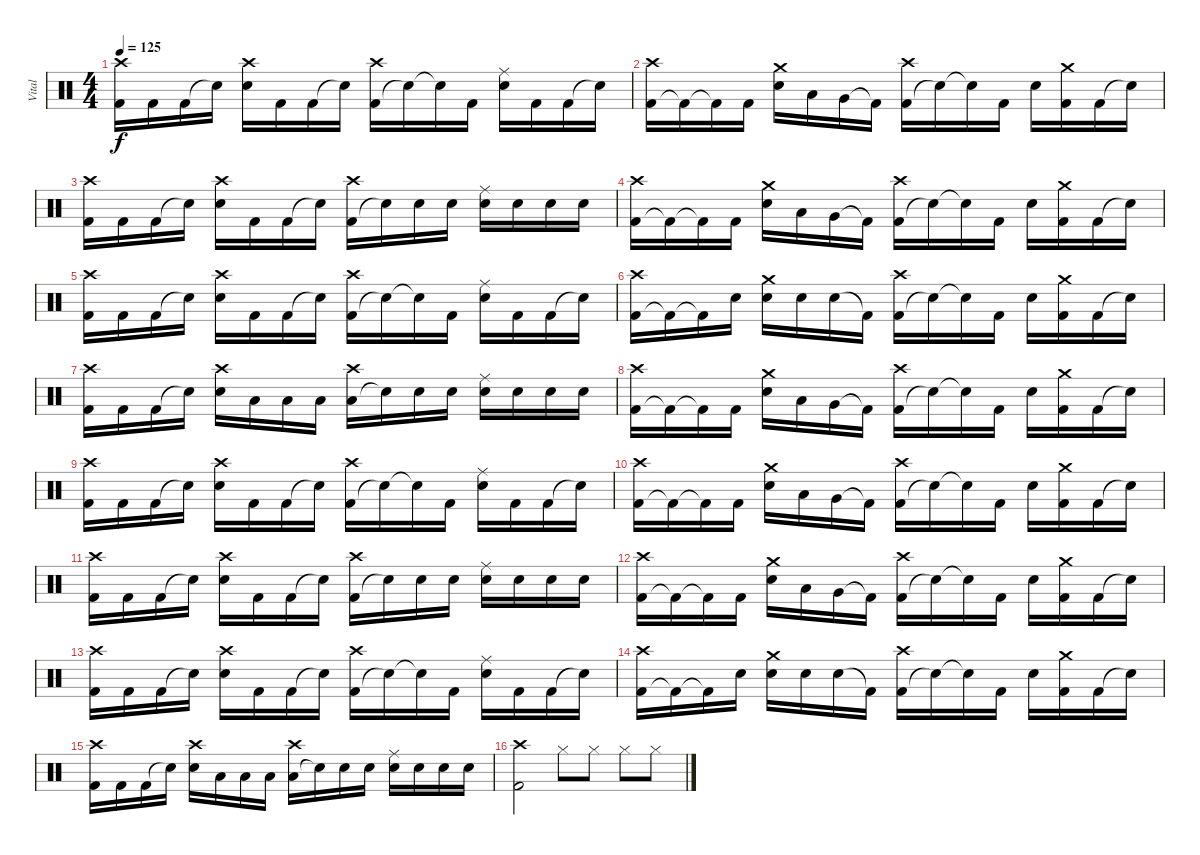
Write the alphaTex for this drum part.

\track ("Vital" "Vital") {instrument percussion}
\staff {score}
\articulation defaults
\ts (4 4)
\tempo 125
\clef neutral
\ks c
("Kick (hit) 2" "Crash high (hit)").16{dy f} "Kick (hit) 2".16 "Kick (hit) 2".16 "Snare (hit)"{t}.16 ("Snare (hit) 2" "Crash high (hit)").16 "Kick (hit) 2".16 "Kick (hit) 2".16 "Snare (hit)"{t}.16 ("Kick (hit) 2" "Crash high (hit)").16 "Snare (hit)"{t}.16 "Snare (hit)"{t}.16 "Kick (hit) 2".16 ("Snare (hit) 2" "Ride (middle)").16 "Kick (hit) 2".16 "Kick (hit) 2".16 "Snare (hit)"{t}.16 |
("Kick (hit) 2" "Crash high (hit)").16 "Kick (hit) 2"{t}.16 "Kick (hit) 2"{t}.16 "Kick (hit) 2".16 ("Snare (hit) 2" "Crash medium (hit)").16 "Low Tom (hit)".16 "Very Low Tom (hit)".16 "Kick (hit) 2"{t}.16 ("Kick (hit) 2" "Crash high (hit)").16 "Snare (hit)"{t}.16 "Snare (hit)"{t}.16 "Kick (hit) 2".16 "Snare (hit) 2".16 ("Kick (hit) 2" "Crash medium (hit)").16 "Kick (hit) 2".16 "Snare (hit)"{t}.16 |
("Kick (hit) 2" "Crash high (hit)").16 "Kick (hit) 2".16 "Kick (hit) 2".16 "Snare (hit)"{t}.16 ("Snare (hit) 2" "Crash high (hit)").16 "Kick (hit) 2".16 "Kick (hit) 2".16 "Snare (hit)"{t}.16 ("Kick (hit) 2" "Crash high (hit)").16 "Snare (hit)"{t}.16 "Snare (hit) 2".16 "Snare (hit) 2".16 ("Snare (hit) 2" "Ride (middle)").16 "Snare (hit) 2".16 "Snare (hit) 2".16 "Snare (hit) 2".16 |
("Kick (hit) 2" "Crash high (hit)").16 "Kick (hit) 2"{t}.16 "Kick (hit) 2"{t}.16 "Kick (hit) 2".16 ("Snare (hit) 2" "Crash medium (hit)").16 "Low Tom (hit)".16 "Very Low Tom (hit)".16 "Kick (hit) 2"{t}.16 ("Kick (hit) 2" "Crash high (hit)").16 "Snare (hit)"{t}.16 "Snare (hit)"{t}.16 "Kick (hit) 2".16 "Snare (hit) 2".16 ("Kick (hit) 2" "Crash medium (hit)").16 "Kick (hit) 2".16 "Snare (hit)"{t}.16 |
("Kick (hit) 2" "Crash high (hit)").16 "Kick (hit) 2".16 "Kick (hit) 2".16 "Snare (hit)"{t}.16 ("Snare (hit) 2" "Crash high (hit)").16 "Kick (hit) 2".16 "Kick (hit) 2".16 "Snare (hit)"{t}.16 ("Kick (hit) 2" "Crash high (hit)").16 "Snare (hit)"{t}.16 "Snare (hit)"{t}.16 "Kick (hit) 2".16 ("Snare (hit) 2" "Ride (middle)").16 "Kick (hit) 2".16 "Kick (hit) 2".16 "Snare (hit)"{t}.16 |
("Kick (hit) 2" "Crash high (hit)").16 "Kick (hit) 2"{t}.16 "Kick (hit) 2"{t}.16 "Snare (hit) 2".16 ("Snare (hit) 2" "Crash medium (hit)").16 "Snare (hit) 2".16 "Snare (hit) 2".16 "Kick (hit) 2"{t}.16 ("Kick (hit) 2" "Crash high (hit)").16 "Snare (hit)"{t}.16 "Snare (hit)"{t}.16 "Kick (hit) 2".16 "Snare (hit) 2".16 ("Kick (hit) 2" "Crash medium (hit)").16 "Kick (hit) 2".16 "Snare (hit)"{t}.16 |
("Kick (hit) 2" "Crash high (hit)").16 "Kick (hit) 2".16 "Kick (hit) 2".16 "Snare (hit)"{t}.16 ("Snare (hit) 2" "Crash high (hit)").16 "Low Floor Tom (hit)".16 "Low Floor Tom (hit)".16 "Low Floor Tom (hit)".16 ("Low Floor Tom (hit)" "Crash high (hit)").16 "Snare (hit)"{t}.16 "Snare (hit) 2".16 "Snare (hit) 2".16 ("Snare (hit) 2" "Ride (middle)").16 "Snare (hit) 2".16 "Snare (hit) 2".16 "Snare (hit) 2".16 |
("Kick (hit) 2" "Crash high (hit)").16 "Kick (hit) 2"{t}.16 "Kick (hit) 2"{t}.16 "Kick (hit) 2".16 ("Snare (hit) 2" "Crash medium (hit)").16 "Low Tom (hit)".16 "Very Low Tom (hit)".16 "Kick (hit) 2"{t}.16 ("Kick (hit) 2" "Crash high (hit)").16 "Snare (hit)"{t}.16 "Snare (hit)"{t}.16 "Kick (hit) 2".16 "Snare (hit) 2".16 ("Kick (hit) 2" "Crash medium (hit)").16 "Kick (hit) 2".16 "Snare (hit)"{t}.16 |
("Kick (hit) 2" "Crash high (hit)").16 "Kick (hit) 2".16 "Kick (hit) 2".16 "Snare (hit)"{t}.16 ("Snare (hit) 2" "Crash high (hit)").16 "Kick (hit) 2".16 "Kick (hit) 2".16 "Snare (hit)"{t}.16 ("Kick (hit) 2" "Crash high (hit)").16 "Snare (hit)"{t}.16 "Snare (hit)"{t}.16 "Kick (hit) 2".16 ("Snare (hit) 2" "Ride (middle)").16 "Kick (hit) 2".16 "Kick (hit) 2".16 "Snare (hit)"{t}.16 |
("Kick (hit) 2" "Crash high (hit)").16 "Kick (hit) 2"{t}.16 "Kick (hit) 2"{t}.16 "Kick (hit) 2".16 ("Snare (hit) 2" "Crash medium (hit)").16 "Low Tom (hit)".16 "Very Low Tom (hit)".16 "Kick (hit) 2"{t}.16 ("Kick (hit) 2" "Crash high (hit)").16 "Snare (hit)"{t}.16 "Snare (hit)"{t}.16 "Kick (hit) 2".16 "Snare (hit) 2".16 ("Kick (hit) 2" "Crash medium (hit)").16 "Kick (hit) 2".16 "Snare (hit)"{t}.16 |
("Kick (hit) 2" "Crash high (hit)").16 "Kick (hit) 2".16 "Kick (hit) 2".16 "Snare (hit)"{t}.16 ("Snare (hit) 2" "Crash high (hit)").16 "Kick (hit) 2".16 "Kick (hit) 2".16 "Snare (hit)"{t}.16 ("Kick (hit) 2" "Crash high (hit)").16 "Snare (hit)"{t}.16 "Snare (hit) 2".16 "Snare (hit) 2".16 ("Snare (hit) 2" "Ride (middle)").16 "Snare (hit) 2".16 "Snare (hit) 2".16 "Snare (hit) 2".16 |
("Kick (hit) 2" "Crash high (hit)").16 "Kick (hit) 2"{t}.16 "Kick (hit) 2"{t}.16 "Kick (hit) 2".16 ("Snare (hit) 2" "Crash medium (hit)").16 "Low Tom (hit)".16 "Very Low Tom (hit)".16 "Kick (hit) 2"{t}.16 ("Kick (hit) 2" "Crash high (hit)").16 "Snare (hit)"{t}.16 "Snare (hit)"{t}.16 "Kick (hit) 2".16 "Snare (hit) 2".16 ("Kick (hit) 2" "Crash medium (hit)").16 "Kick (hit) 2".16 "Snare (hit)"{t}.16 |
("Kick (hit) 2" "Crash high (hit)").16 "Kick (hit) 2".16 "Kick (hit) 2".16 "Snare (hit)"{t}.16 ("Snare (hit) 2" "Crash high (hit)").16 "Kick (hit) 2".16 "Kick (hit) 2".16 "Snare (hit)"{t}.16 ("Kick (hit) 2" "Crash high (hit)").16 "Snare (hit)"{t}.16 "Snare (hit)"{t}.16 "Kick (hit) 2".16 ("Snare (hit) 2" "Ride (middle)").16 "Kick (hit) 2".16 "Kick (hit) 2".16 "Snare (hit)"{t}.16 |
("Kick (hit) 2" "Crash high (hit)").16 "Kick (hit) 2"{t}.16 "Kick (hit) 2"{t}.16 "Snare (hit) 2".16 ("Snare (hit) 2" "Crash medium (hit)").16 "Snare (hit) 2".16 "Snare (hit) 2".16 "Kick (hit) 2"{t}.16 ("Kick (hit) 2" "Crash high (hit)").16 "Snare (hit)"{t}.16 "Snare (hit)"{t}.16 "Kick (hit) 2".16 "Snare (hit) 2".16 ("Kick (hit) 2" "Crash medium (hit)").16 "Kick (hit) 2".16 "Snare (hit)"{t}.16 |
("Kick (hit) 2" "Crash high (hit)").16 "Kick (hit) 2".16 "Kick (hit) 2".16 "Snare (hit)"{t}.16 ("Snare (hit) 2" "Crash high (hit)").16 "Low Floor Tom (hit)".16 "Low Floor Tom (hit)".16 "Low Floor Tom (hit)".16 ("Low Floor Tom (hit)" "Crash high (hit)").16 "Snare (hit)"{t}.16 "Snare (hit) 2".16 "Snare (hit) 2".16 ("Snare (hit) 2" "Ride (middle)").16 "Snare (hit) 2".16 "Snare (hit) 2".16 "Snare (hit) 2".16 |
("Kick (hit) 2" "Crash high (hit)").2 "Hi-Hat (closed)".8 "Hi-Hat (closed)".8 "Hi-Hat (closed)".8 "Hi-Hat (closed)".8
